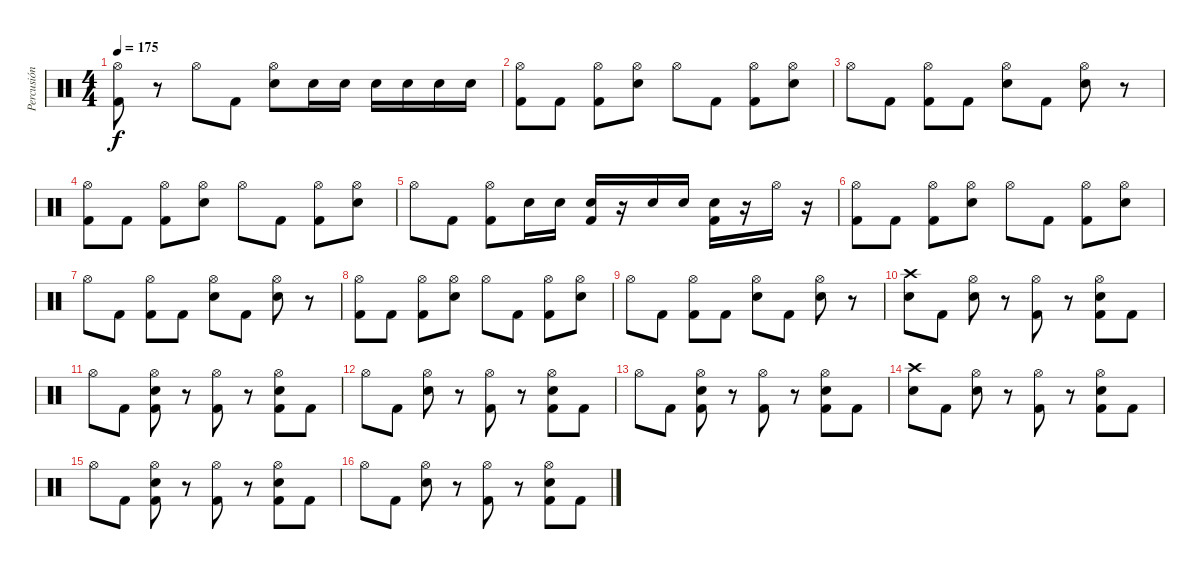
\track ("Percusión" "Percusión") {instrument percussion}
\staff {score}
\articulation defaults
\ts (4 4)
\tempo 175
\clef neutral
\ks c
("Hi-Hat (open)" "Kick (hit) 2").8{dy f} r.8 "Hi-Hat (open)".8 "Kick (hit) 2".8 ("Hi-Hat (open)" "Electric Snare (hit)").8 "Electric Snare (hit)".16 "Electric Snare (hit)".16 "Electric Snare (hit)".16 "Snare (hit)".16 "Electric Snare (hit)".16 "Electric Snare (hit)".16 |
("Hi-Hat (open)" "Kick (hit) 2").8 "Kick (hit) 2".8 ("Hi-Hat (open)" "Kick (hit) 2").8 ("Hi-Hat (open)" "Electric Snare (hit)").8 "Hi-Hat (open)".8 "Kick (hit) 2".8 ("Hi-Hat (open)" "Kick (hit) 2").8 ("Hi-Hat (open)" "Electric Snare (hit)").8 |
"Hi-Hat (open)".8 "Kick (hit) 2".8 ("Hi-Hat (open)" "Kick (hit) 2").8 "Kick (hit) 2".8 ("Hi-Hat (open)" "Electric Snare (hit)").8 "Kick (hit) 2".8 ("Hi-Hat (open)" "Electric Snare (hit)").8 r.8 |
("Hi-Hat (open)" "Kick (hit) 2").8 "Kick (hit) 2".8 ("Hi-Hat (open)" "Kick (hit) 2").8 ("Hi-Hat (open)" "Electric Snare (hit)").8 "Hi-Hat (open)".8 "Kick (hit) 2".8 ("Hi-Hat (open)" "Kick (hit) 2").8 ("Hi-Hat (open)" "Electric Snare (hit)").8 |
"Hi-Hat (open)".8 "Kick (hit) 2".8 ("Hi-Hat (open)" "Kick (hit) 2").8 "Electric Snare (hit)".16 "Electric Snare (hit)".16 ("Electric Snare (hit)" "Kick (hit) 2").16 r.16 "Electric Snare (hit)".16 "Electric Snare (hit)".16 ("Electric Snare (hit)" "Kick (hit) 2").16 r.16 "Hi-Hat (open)".16 r.16 |
("Hi-Hat (open)" "Kick (hit) 2").8 "Kick (hit) 2".8 ("Hi-Hat (open)" "Kick (hit) 2").8 ("Hi-Hat (open)" "Electric Snare (hit)").8 "Hi-Hat (open)".8 "Kick (hit) 2".8 ("Hi-Hat (open)" "Kick (hit) 2").8 ("Hi-Hat (open)" "Electric Snare (hit)").8 |
"Hi-Hat (open)".8 "Kick (hit) 2".8 ("Hi-Hat (open)" "Kick (hit) 2").8 "Kick (hit) 2".8 ("Hi-Hat (open)" "Electric Snare (hit)").8 "Kick (hit) 2".8 ("Hi-Hat (open)" "Electric Snare (hit)").8 r.8 |
("Hi-Hat (open)" "Kick (hit) 2").8 "Kick (hit) 2".8 ("Hi-Hat (open)" "Kick (hit) 2").8 ("Hi-Hat (open)" "Electric Snare (hit)").8 "Hi-Hat (open)".8 "Kick (hit) 2".8 ("Hi-Hat (open)" "Kick (hit) 2").8 ("Hi-Hat (open)" "Electric Snare (hit)").8 |
"Hi-Hat (open)".8 "Kick (hit) 2".8 ("Hi-Hat (open)" "Kick (hit) 2").8 "Kick (hit) 2".8 ("Hi-Hat (open)" "Electric Snare (hit)").8 "Kick (hit) 2".8 ("Hi-Hat (open)" "Electric Snare (hit)").8 r.8 |
("Crash high (hit)" "Electric Snare (hit)").8 "Kick (hit) 2".8 ("Hi-Hat (open)" "Electric Snare (hit)").8 r.8 ("Hi-Hat (open)" "Kick (hit) 2").8 r.8 ("Hi-Hat (open)" "Electric Snare (hit)" "Kick (hit) 2").8 "Kick (hit) 2".8 |
"Hi-Hat (open)".8 "Kick (hit) 2".8 ("Hi-Hat (open)" "Electric Snare (hit)" "Kick (hit) 2").8 r.8 ("Hi-Hat (open)" "Kick (hit) 2").8 r.8 ("Electric Snare (hit)" "Hi-Hat (open)" "Kick (hit) 2").8 "Kick (hit) 2".8 |
"Hi-Hat (open)".8 "Kick (hit) 2".8 ("Hi-Hat (open)" "Electric Snare (hit)").8 r.8 ("Hi-Hat (open)" "Kick (hit) 2").8 r.8 ("Hi-Hat (open)" "Electric Snare (hit)" "Kick (hit) 2").8 "Kick (hit) 2".8 |
"Hi-Hat (open)".8 "Kick (hit) 2".8 ("Hi-Hat (open)" "Electric Snare (hit)" "Kick (hit) 2").8 r.8 ("Hi-Hat (open)" "Kick (hit) 2").8 r.8 ("Electric Snare (hit)" "Hi-Hat (open)" "Kick (hit) 2").8 "Kick (hit) 2".8 |
("Crash high (hit)" "Electric Snare (hit)").8 "Kick (hit) 2".8 ("Hi-Hat (open)" "Electric Snare (hit)").8 r.8 ("Hi-Hat (open)" "Kick (hit) 2").8 r.8 ("Hi-Hat (open)" "Electric Snare (hit)" "Kick (hit) 2").8 "Kick (hit) 2".8 |
"Hi-Hat (open)".8 "Kick (hit) 2".8 ("Hi-Hat (open)" "Electric Snare (hit)" "Kick (hit) 2").8 r.8 ("Hi-Hat (open)" "Kick (hit) 2").8 r.8 ("Electric Snare (hit)" "Hi-Hat (open)" "Kick (hit) 2").8 "Kick (hit) 2".8 |
"Hi-Hat (open)".8 "Kick (hit) 2".8 ("Hi-Hat (open)" "Electric Snare (hit)").8 r.8 ("Hi-Hat (open)" "Kick (hit) 2").8 r.8 ("Hi-Hat (open)" "Electric Snare (hit)" "Kick (hit) 2").8 "Kick (hit) 2".8
